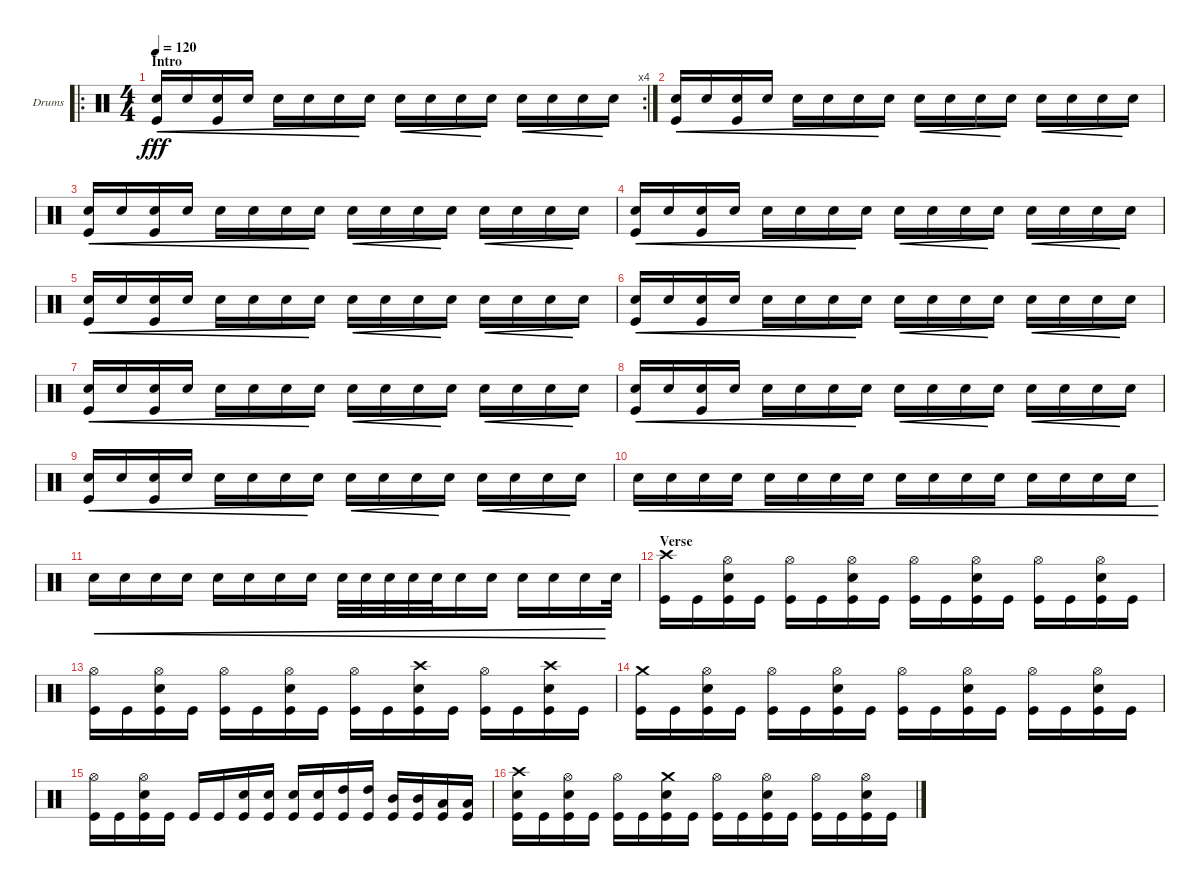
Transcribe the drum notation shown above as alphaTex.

\defaultSystemsLayout 4
\bracketExtendMode groupsimilarinstruments
\firstSystemTrackNameOrientation horizontal
\otherSystemsTrackNameOrientation horizontal
\track ("Jon Larsen" "Drums") {instrument percussion}
\staff {score}
\articulation defaults
\ro
\rc 4
\ts (4 4)
\section ("" "Intro")
\tempo 120
\clef neutral
\scale
0.515152
\ks c
("Kick (hit)" "Snare (hit) 2").16{cre dy fff} "Snare (hit) 2".16{cre} ("Kick (hit)" "Snare (hit) 2").16{cre} "Snare (hit) 2".16{cre} "Snare (hit) 2".16{cre} "Snare (hit) 2".16{cre} "Snare (hit) 2".16{cre} "Snare (hit) 2".16 "Snare (hit) 2".16{cre} "Snare (hit) 2".16{cre} "Snare (hit) 2".16{cre} "Snare (hit) 2".16 "Snare (hit) 2".16{cre} "Snare (hit) 2".16{cre} "Snare (hit) 2".16{cre} "Snare (hit) 2".16 |
\scale
0.242424 ("Kick (hit)" "Snare (hit) 2").16{cre} "Snare (hit) 2".16{cre} ("Kick (hit)" "Snare (hit) 2").16{cre} "Snare (hit) 2".16{cre} "Snare (hit) 2".16{cre} "Snare (hit) 2".16{cre} "Snare (hit) 2".16{cre} "Snare (hit) 2".16 "Snare (hit) 2".16{cre} "Snare (hit) 2".16{cre} "Snare (hit) 2".16{cre} "Snare (hit) 2".16 "Snare (hit) 2".16{cre} "Snare (hit) 2".16{cre} "Snare (hit) 2".16{cre} "Snare (hit) 2".16 |
\scale
0.242424 ("Kick (hit)" "Snare (hit) 2").16{cre} "Snare (hit) 2".16{cre} ("Kick (hit)" "Snare (hit) 2").16{cre} "Snare (hit) 2".16{cre} "Snare (hit) 2".16{cre} "Snare (hit) 2".16{cre} "Snare (hit) 2".16{cre} "Snare (hit) 2".16 "Snare (hit) 2".16{cre} "Snare (hit) 2".16{cre} "Snare (hit) 2".16{cre} "Snare (hit) 2".16 "Snare (hit) 2".16{cre} "Snare (hit) 2".16{cre} "Snare (hit) 2".16{cre} "Snare (hit) 2".16 |
\scale
0.333333 ("Kick (hit)" "Snare (hit) 2").16{cre} "Snare (hit) 2".16{cre} ("Kick (hit)" "Snare (hit) 2").16{cre} "Snare (hit) 2".16{cre} "Snare (hit) 2".16{cre} "Snare (hit) 2".16{cre} "Snare (hit) 2".16{cre} "Snare (hit) 2".16 "Snare (hit) 2".16{cre} "Snare (hit) 2".16{cre} "Snare (hit) 2".16{cre} "Snare (hit) 2".16 "Snare (hit) 2".16{cre} "Snare (hit) 2".16{cre} "Snare (hit) 2".16{cre} "Snare (hit) 2".16 |
\scale
0.333333 ("Kick (hit)" "Snare (hit) 2").16{cre} "Snare (hit) 2".16{cre} ("Kick (hit)" "Snare (hit) 2").16{cre} "Snare (hit) 2".16{cre} "Snare (hit) 2".16{cre} "Snare (hit) 2".16{cre} "Snare (hit) 2".16{cre} "Snare (hit) 2".16 "Snare (hit) 2".16{cre} "Snare (hit) 2".16{cre} "Snare (hit) 2".16{cre} "Snare (hit) 2".16 "Snare (hit) 2".16{cre} "Snare (hit) 2".16{cre} "Snare (hit) 2".16{cre} "Snare (hit) 2".16 |
\scale
0.333333 ("Kick (hit)" "Snare (hit) 2").16{cre} "Snare (hit) 2".16{cre} ("Kick (hit)" "Snare (hit) 2").16{cre} "Snare (hit) 2".16{cre} "Snare (hit) 2".16{cre} "Snare (hit) 2".16{cre} "Snare (hit) 2".16{cre} "Snare (hit) 2".16 "Snare (hit) 2".16{cre} "Snare (hit) 2".16{cre} "Snare (hit) 2".16{cre} "Snare (hit) 2".16 "Snare (hit) 2".16{cre} "Snare (hit) 2".16{cre} "Snare (hit) 2".16{cre} "Snare (hit) 2".16 |
\scale
0.333333 ("Kick (hit)" "Snare (hit) 2").16{cre} "Snare (hit) 2".16{cre} ("Kick (hit)" "Snare (hit) 2").16{cre} "Snare (hit) 2".16{cre} "Snare (hit) 2".16{cre} "Snare (hit) 2".16{cre} "Snare (hit) 2".16{cre} "Snare (hit) 2".16 "Snare (hit) 2".16{cre} "Snare (hit) 2".16{cre} "Snare (hit) 2".16{cre} "Snare (hit) 2".16 "Snare (hit) 2".16{cre} "Snare (hit) 2".16{cre} "Snare (hit) 2".16{cre} "Snare (hit) 2".16 |
\scale
0.333333 ("Kick (hit)" "Snare (hit) 2").16{cre} "Snare (hit) 2".16{cre} ("Kick (hit)" "Snare (hit) 2").16{cre} "Snare (hit) 2".16{cre} "Snare (hit) 2".16{cre} "Snare (hit) 2".16{cre} "Snare (hit) 2".16{cre} "Snare (hit) 2".16 "Snare (hit) 2".16{cre} "Snare (hit) 2".16{cre} "Snare (hit) 2".16{cre} "Snare (hit) 2".16 "Snare (hit) 2".16{cre} "Snare (hit) 2".16{cre} "Snare (hit) 2".16{cre} "Snare (hit) 2".16 |
\scale
0.333333 ("Kick (hit)" "Snare (hit) 2").16{cre} "Snare (hit) 2".16{cre} ("Kick (hit)" "Snare (hit) 2").16{cre} "Snare (hit) 2".16{cre} "Snare (hit) 2".16{cre} "Snare (hit) 2".16{cre} "Snare (hit) 2".16{cre} "Snare (hit) 2".16 "Snare (hit) 2".16{cre} "Snare (hit) 2".16{cre} "Snare (hit) 2".16{cre} "Snare (hit) 2".16 "Snare (hit) 2".16{cre} "Snare (hit) 2".16{cre} "Snare (hit) 2".16{cre} "Snare (hit) 2".16 |
\scale
0.333333 "Snare (hit) 2".16{cre} "Snare (hit) 2".16{cre} "Snare (hit) 2".16{cre} "Snare (hit) 2".16{cre} "Snare (hit) 2".16{cre} "Snare (hit) 2".16{cre} "Snare (hit) 2".16{cre} "Snare (hit) 2".16{cre} "Snare (hit) 2".16{cre} "Snare (hit) 2".16{cre} "Snare (hit) 2".16{cre} "Snare (hit) 2".16{cre} "Snare (hit) 2".16{cre} "Snare (hit) 2".16{cre} "Snare (hit) 2".16{cre} "Snare (hit) 2".16{cre} |
\scale
0.333333 "Snare (hit) 2".16{cre} "Snare (hit) 2".16{cre} "Snare (hit) 2".16{cre} "Snare (hit) 2".16{cre} "Snare (hit) 2".16{cre} "Snare (hit) 2".16{cre} "Snare (hit) 2".16{cre} "Snare (hit) 2".16{cre} "Snare (hit) 2".32{cre} "Snare (hit) 2".32{cre} "Snare (hit) 2".32{cre} "Snare (hit) 2".32{cre} "Snare (hit) 2".32{cre} "Snare (hit) 2".16{cre} "Snare (hit) 2".16{cre} "Snare (hit) 2".16{cre} "Snare (hit) 2".16{cre} "Snare (hit) 2".16{cre} "Snare (hit) 2".32 |
\section ("" "Verse")
\scale
0.333333 ("Kick (hit)" "Crash high (hit)").16 "Kick (hit)".16 ("Kick (hit)" "Hi-Hat (open)" "Snare (hit) 2").16 "Kick (hit)".16 ("Kick (hit)" "Hi-Hat (open)").16 "Kick (hit)".16 ("Kick (hit)" "Hi-Hat (open)" "Snare (hit) 2").16 "Kick (hit)".16 ("Kick (hit)" "Hi-Hat (open)").16 "Kick (hit)".16 ("Kick (hit)" "Hi-Hat (open)" "Snare (hit) 2").16 "Kick (hit)".16 ("Kick (hit)" "Hi-Hat (open)").16 "Kick (hit)".16 ("Kick (hit)" "Hi-Hat (open)" "Snare (hit) 2").16 "Kick (hit)".16 |
\scale
0.333333 ("Kick (hit)" "Hi-Hat (open)").16 "Kick (hit)".16 ("Kick (hit)" "Snare (hit) 2" "Hi-Hat (open)").16 "Kick (hit)".16 ("Kick (hit)" "Hi-Hat (open)").16 "Kick (hit)".16 ("Kick (hit)" "Snare (hit) 2" "Hi-Hat (open)").16 "Kick (hit)".16 ("Kick (hit)" "Hi-Hat (open)").16 "Kick (hit)".16 ("Kick (hit)" "Snare (hit) 2" "Crash high (hit)").16 "Kick (hit)".16 ("Kick (hit)" "Hi-Hat (open)").16 "Kick (hit)".16 ("Kick (hit)" "Snare (hit) 2" "Crash high (hit)").16 "Kick (hit)".16 |
\scale
0.333333 ("Kick (hit)" "Crash medium (hit)").16 "Kick (hit)".16 ("Kick (hit)" "Snare (hit) 2" "Hi-Hat (open)").16 "Kick (hit)".16 ("Kick (hit)" "Hi-Hat (open)").16 "Kick (hit)".16 ("Kick (hit)" "Snare (hit) 2" "Hi-Hat (open)").16 "Kick (hit)".16 ("Kick (hit)" "Hi-Hat (open)").16 "Kick (hit)".16 ("Kick (hit)" "Snare (hit) 2" "Hi-Hat (open)").16 "Kick (hit)".16 ("Kick (hit)" "Hi-Hat (open)").16 "Kick (hit)".16 ("Kick (hit)" "Snare (hit) 2" "Hi-Hat (open)").16 "Kick (hit)".16 |
\scale
0.333333 ("Kick (hit)" "Hi-Hat (open)").16 "Kick (hit)".16 ("Kick (hit)" "Hi-Hat (open)" "Snare (hit) 2").16 "Kick (hit)".16 "Kick (hit)".16 "Kick (hit)".16 ("Kick (hit)" "Snare (hit) 2").16 ("Kick (hit)" "Snare (hit) 2").16 ("Kick (hit)" "Snare (hit) 2").16 ("Kick (hit)" "Snare (hit) 2").16 ("Kick (hit)" "High Tom (hit)").16 ("Kick (hit)" "High Tom (hit)").16 ("Kick (hit)" "Mid Tom (hit)").16 ("Kick (hit)" "Mid Tom (hit)").16 ("Kick (hit)" "Low Tom (hit)").16 ("Kick (hit)" "Low Tom (hit)").16 |
\scale
0.333333 ("Kick (hit)" "Crash high (hit)" "Snare (hit) 2").16 "Kick (hit)".16 ("Kick (hit)" "Hi-Hat (open)" "Snare (hit) 2").16 "Kick (hit)".16 ("Kick (hit)" "Hi-Hat (open)").16 "Kick (hit)".16 ("Kick (hit)" "Snare (hit) 2" "Crash medium (hit)").16 "Kick (hit)".16 ("Kick (hit)" "Hi-Hat (open)").16 "Kick (hit)".16 ("Kick (hit)" "Hi-Hat (open)" "Snare (hit) 2").16 "Kick (hit)".16 ("Kick (hit)" "Hi-Hat (open)").16 "Kick (hit)".16 ("Kick (hit)" "Hi-Hat (open)" "Snare (hit) 2").16 "Kick (hit)".16
